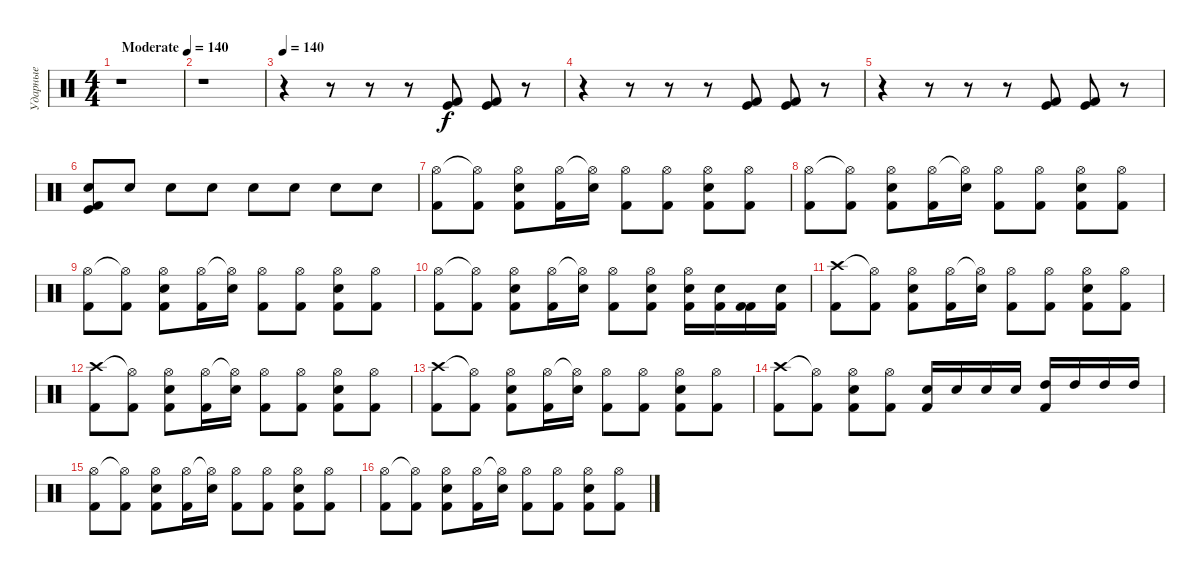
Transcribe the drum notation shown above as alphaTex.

\track ("Ударные" "Ударные") {instrument percussion}
\staff {score}
\articulation defaults
\ts (4 4)
\tempo (140 "Moderate")
\tempo 70
\tempo (140 "Moderate")
\clef neutral
\ks c
r.1{dy f} |
r.1 |
\tempo 140
r.4 r.8 r.8 r.8 ("Kick (hit) 2" "Kick (hit)").8 ("Kick (hit) 2" "Kick (hit)").8 r.8 |
r.4 r.8 r.8 r.8 ("Kick (hit) 2" "Kick (hit)").8 ("Kick (hit) 2" "Kick (hit)").8 r.8 |
r.4 r.8 r.8 r.8 ("Kick (hit) 2" "Kick (hit)").8 ("Kick (hit) 2" "Kick (hit)").8 r.8 |
("Kick (hit)" "Electric Snare (hit)" "Kick (hit) 2").8 "Electric Snare (hit)".8 "Electric Snare (hit)".8 "Electric Snare (hit)".8 "Electric Snare (hit)".8 "Electric Snare (hit)".8 "Electric Snare (hit)".8 "Electric Snare (hit)".8 |
("Hi-Hat (open)" "Kick (hit) 2").8 ("Hi-Hat (open)"{t} "Kick (hit) 2").8 ("Hi-Hat (open)" "Electric Snare (hit)" "Kick (hit) 2").8 ("Hi-Hat (open)" "Kick (hit) 2").16 ("Hi-Hat (open)"{t} "Electric Snare (hit)").16 ("Hi-Hat (open)" "Kick (hit) 2").8 ("Hi-Hat (open)" "Kick (hit) 2").8 ("Hi-Hat (open)" "Electric Snare (hit)" "Kick (hit) 2").8 ("Hi-Hat (open)" "Kick (hit) 2").8 |
("Hi-Hat (open)" "Kick (hit) 2").8 ("Hi-Hat (open)"{t} "Kick (hit) 2").8 ("Hi-Hat (open)" "Electric Snare (hit)" "Kick (hit) 2").8 ("Hi-Hat (open)" "Kick (hit) 2").16 ("Hi-Hat (open)"{t} "Electric Snare (hit)").16 ("Hi-Hat (open)" "Kick (hit) 2").8 ("Hi-Hat (open)" "Kick (hit) 2").8 ("Hi-Hat (open)" "Electric Snare (hit)" "Kick (hit) 2").8 ("Hi-Hat (open)" "Kick (hit) 2").8 |
("Hi-Hat (open)" "Kick (hit) 2").8 ("Hi-Hat (open)"{t} "Kick (hit) 2").8 ("Hi-Hat (open)" "Electric Snare (hit)" "Kick (hit) 2").8 ("Hi-Hat (open)" "Kick (hit) 2").16 ("Hi-Hat (open)"{t} "Electric Snare (hit)").16 ("Hi-Hat (open)" "Kick (hit) 2").8 ("Hi-Hat (open)" "Kick (hit) 2").8 ("Hi-Hat (open)" "Electric Snare (hit)" "Kick (hit) 2").8 ("Hi-Hat (open)" "Kick (hit) 2").8 |
("Hi-Hat (open)" "Kick (hit) 2").8 ("Hi-Hat (open)"{t} "Kick (hit) 2").8 ("Hi-Hat (open)" "Electric Snare (hit)" "Kick (hit) 2").8 ("Hi-Hat (open)" "Kick (hit) 2").16 ("Hi-Hat (open)"{t} "Electric Snare (hit)").16 ("Hi-Hat (open)" "Kick (hit) 2").8 ("Hi-Hat (open)" "Electric Snare (hit)" "Kick (hit) 2").8 ("Hi-Hat (open)" "Kick (hit) 2" "Electric Snare (hit)").16 ("Electric Snare (hit)" "Kick (hit) 2").16 ("Kick (hit) 2" "Kick (hit) 2").16 ("Electric Snare (hit)" "Kick (hit) 2").16 |
("Crash high (hit)" "Kick (hit) 2").8 ("Hi-Hat (open)"{t} "Kick (hit) 2").8 ("Hi-Hat (open)" "Electric Snare (hit)" "Kick (hit) 2").8 ("Hi-Hat (open)" "Kick (hit) 2").16 ("Hi-Hat (open)"{t} "Electric Snare (hit)").16 ("Hi-Hat (open)" "Kick (hit) 2").8 ("Hi-Hat (open)" "Kick (hit) 2").8 ("Hi-Hat (open)" "Electric Snare (hit)" "Kick (hit) 2").8 ("Hi-Hat (open)" "Kick (hit) 2").8 |
("Crash high (hit)" "Kick (hit) 2").8 ("Hi-Hat (open)"{t} "Kick (hit) 2").8 ("Hi-Hat (open)" "Electric Snare (hit)" "Kick (hit) 2").8 ("Hi-Hat (open)" "Kick (hit) 2").16 ("Hi-Hat (open)"{t} "Electric Snare (hit)").16 ("Hi-Hat (open)" "Kick (hit) 2").8 ("Hi-Hat (open)" "Kick (hit) 2").8 ("Hi-Hat (open)" "Electric Snare (hit)" "Kick (hit) 2").8 ("Hi-Hat (open)" "Kick (hit) 2").8 |
("Crash high (hit)" "Kick (hit) 2").8 ("Hi-Hat (open)"{t} "Kick (hit) 2").8 ("Hi-Hat (open)" "Electric Snare (hit)" "Kick (hit) 2").8 ("Hi-Hat (open)" "Kick (hit) 2").16 ("Hi-Hat (open)"{t} "Electric Snare (hit)").16 ("Hi-Hat (open)" "Kick (hit) 2").8 ("Hi-Hat (open)" "Kick (hit) 2").8 ("Hi-Hat (open)" "Electric Snare (hit)" "Kick (hit) 2").8 ("Hi-Hat (open)" "Kick (hit) 2").8 |
("Crash high (hit)" "Kick (hit) 2").8 ("Hi-Hat (open)"{t} "Kick (hit) 2").8 ("Hi-Hat (open)" "Electric Snare (hit)" "Kick (hit) 2").8 ("Hi-Hat (open)" "Kick (hit) 2").8 ("Electric Snare (hit)" "Kick (hit) 2").16 "Electric Snare (hit)".16 "Electric Snare (hit)".16 "Electric Snare (hit)".16 ("High Tom (hit)" "Kick (hit) 2").16 "High Tom (hit)".16 "High Tom (hit)".16 "High Tom (hit)".16 |
("Hi-Hat (open)" "Kick (hit) 2").8 ("Hi-Hat (open)"{t} "Kick (hit) 2").8 ("Hi-Hat (open)" "Electric Snare (hit)" "Kick (hit) 2").8 ("Hi-Hat (open)" "Kick (hit) 2").16 ("Hi-Hat (open)"{t} "Electric Snare (hit)").16 ("Hi-Hat (open)" "Kick (hit) 2").8 ("Hi-Hat (open)" "Kick (hit) 2").8 ("Hi-Hat (open)" "Electric Snare (hit)" "Kick (hit) 2").8 ("Hi-Hat (open)" "Kick (hit) 2").8 |
("Hi-Hat (open)" "Kick (hit) 2").8 ("Hi-Hat (open)"{t} "Kick (hit) 2").8 ("Hi-Hat (open)" "Electric Snare (hit)" "Kick (hit) 2").8 ("Hi-Hat (open)" "Kick (hit) 2").16 ("Hi-Hat (open)"{t} "Electric Snare (hit)").16 ("Hi-Hat (open)" "Kick (hit) 2").8 ("Hi-Hat (open)" "Kick (hit) 2").8 ("Hi-Hat (open)" "Electric Snare (hit)" "Kick (hit) 2").8 ("Hi-Hat (open)" "Kick (hit) 2").8
